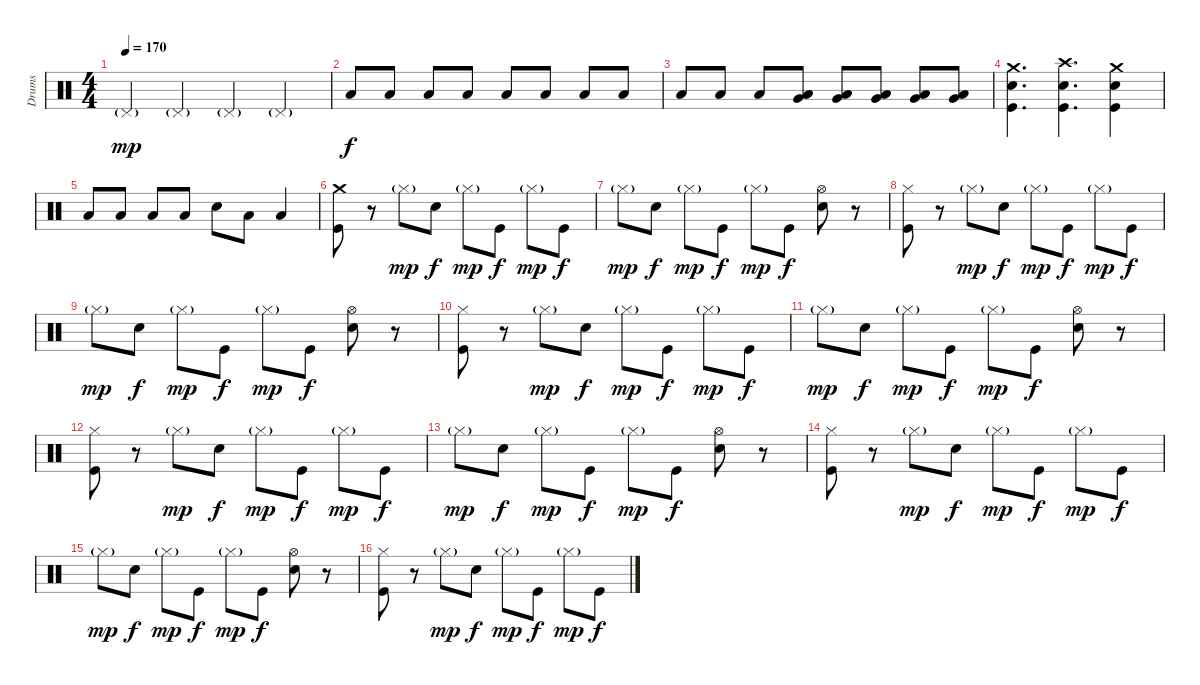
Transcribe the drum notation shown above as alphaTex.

\track ("Drums" "Drums") {instrument percussion}
\staff {score}
\articulation defaults
\ts (4 4)
\tempo 170
\clef neutral
\ks c "Pedal Hi-Hat (hit)"{g}.4{dy mp} "Pedal Hi-Hat (hit)"{g}.4 "Pedal Hi-Hat (hit)"{g}.4 "Pedal Hi-Hat (hit)"{g}.4
|
"Low Tom (hit)".8{dy f} "Low Tom (hit)".8 "Low Tom (hit)".8 "Low Tom (hit)".8 "Low Tom (hit)".8 "Low Tom (hit)".8 "Low Tom (hit)".8 "Low Tom (hit)".8 |
"Low Tom (hit)".8 "Low Tom (hit)".8 "Low Tom (hit)".8 ("Very Low Tom (hit)" "Low Tom (hit)").8 ("Very Low Tom (hit)" "Low Tom (hit)").8 ("Very Low Tom (hit)" "Low Tom (hit)").8 ("Very Low Tom (hit)" "Low Tom (hit)").8 ("Very Low Tom (hit)" "Low Tom (hit)").8 |
("Crash medium (hit)" "Electric Snare (hit)" "Kick (hit)").4{d} ("Crash high (hit)" "Electric Snare (hit)" "Kick (hit)").4{d} ("Crash medium (hit)" "Electric Snare (hit)" "Kick (hit)").4 |
"Low Tom (hit)".8 "Low Tom (hit)".8 "Low Tom (hit)".8 "Low Tom (hit)".8 "Electric Snare (hit)".8 "Low Tom (hit)".8 "Low Tom (hit)".4 |
("Crash medium (hit)" "Kick (hit)").8 r.8 "Hi-Hat (closed)"{g}.8{dy mp} "Electric Snare (hit)".8{dy f} "Hi-Hat (closed)"{g}.8{dy mp} "Kick (hit)".8{dy f} "Hi-Hat (closed)"{g}.8{dy mp} "Kick (hit)".8{dy f} |
"Hi-Hat (closed)"{g}.8{dy mp} "Electric Snare (hit)".8{dy f} "Hi-Hat (closed)"{g}.8{dy mp} "Kick (hit)".8{dy f} "Hi-Hat (closed)"{g}.8{dy mp} "Kick (hit)".8{dy f} ("Hi-Hat (open)" "Electric Snare (hit)").8 r.8 |
("Hi-Hat (closed)" "Kick (hit)").8 r.8 "Hi-Hat (closed)"{g}.8{dy mp} "Electric Snare (hit)".8{dy f} "Hi-Hat (closed)"{g}.8{dy mp} "Kick (hit)".8{dy f} "Hi-Hat (closed)"{g}.8{dy mp} "Kick (hit)".8{dy f} |
"Hi-Hat (closed)"{g}.8{dy mp} "Electric Snare (hit)".8{dy f} "Hi-Hat (closed)"{g}.8{dy mp} "Kick (hit)".8{dy f} "Hi-Hat (closed)"{g}.8{dy mp} "Kick (hit)".8{dy f} ("Hi-Hat (open)" "Electric Snare (hit)").8 r.8 |
("Hi-Hat (closed)" "Kick (hit)").8 r.8 "Hi-Hat (closed)"{g}.8{dy mp} "Electric Snare (hit)".8{dy f} "Hi-Hat (closed)"{g}.8{dy mp} "Kick (hit)".8{dy f} "Hi-Hat (closed)"{g}.8{dy mp} "Kick (hit)".8{dy f} |
"Hi-Hat (closed)"{g}.8{dy mp} "Electric Snare (hit)".8{dy f} "Hi-Hat (closed)"{g}.8{dy mp} "Kick (hit)".8{dy f} "Hi-Hat (closed)"{g}.8{dy mp} "Kick (hit)".8{dy f} ("Hi-Hat (open)" "Electric Snare (hit)").8 r.8 |
("Hi-Hat (closed)" "Kick (hit)").8 r.8 "Hi-Hat (closed)"{g}.8{dy mp} "Electric Snare (hit)".8{dy f} "Hi-Hat (closed)"{g}.8{dy mp} "Kick (hit)".8{dy f} "Hi-Hat (closed)"{g}.8{dy mp} "Kick (hit)".8{dy f} |
"Hi-Hat (closed)"{g}.8{dy mp} "Electric Snare (hit)".8{dy f} "Hi-Hat (closed)"{g}.8{dy mp} "Kick (hit)".8{dy f} "Hi-Hat (closed)"{g}.8{dy mp} "Kick (hit)".8{dy f} ("Hi-Hat (open)" "Electric Snare (hit)").8 r.8 |
("Hi-Hat (closed)" "Kick (hit)").8 r.8 "Hi-Hat (closed)"{g}.8{dy mp} "Electric Snare (hit)".8{dy f} "Hi-Hat (closed)"{g}.8{dy mp} "Kick (hit)".8{dy f} "Hi-Hat (closed)"{g}.8{dy mp} "Kick (hit)".8{dy f} |
"Hi-Hat (closed)"{g}.8{dy mp} "Electric Snare (hit)".8{dy f} "Hi-Hat (closed)"{g}.8{dy mp} "Kick (hit)".8{dy f} "Hi-Hat (closed)"{g}.8{dy mp} "Kick (hit)".8{dy f} ("Hi-Hat (open)" "Electric Snare (hit)").8 r.8 |
("Hi-Hat (closed)" "Kick (hit)").8 r.8 "Hi-Hat (closed)"{g}.8{dy mp} "Electric Snare (hit)".8{dy f} "Hi-Hat (closed)"{g}.8{dy mp} "Kick (hit)".8{dy f} "Hi-Hat (closed)"{g}.8{dy mp} "Kick (hit)".8{dy f}
